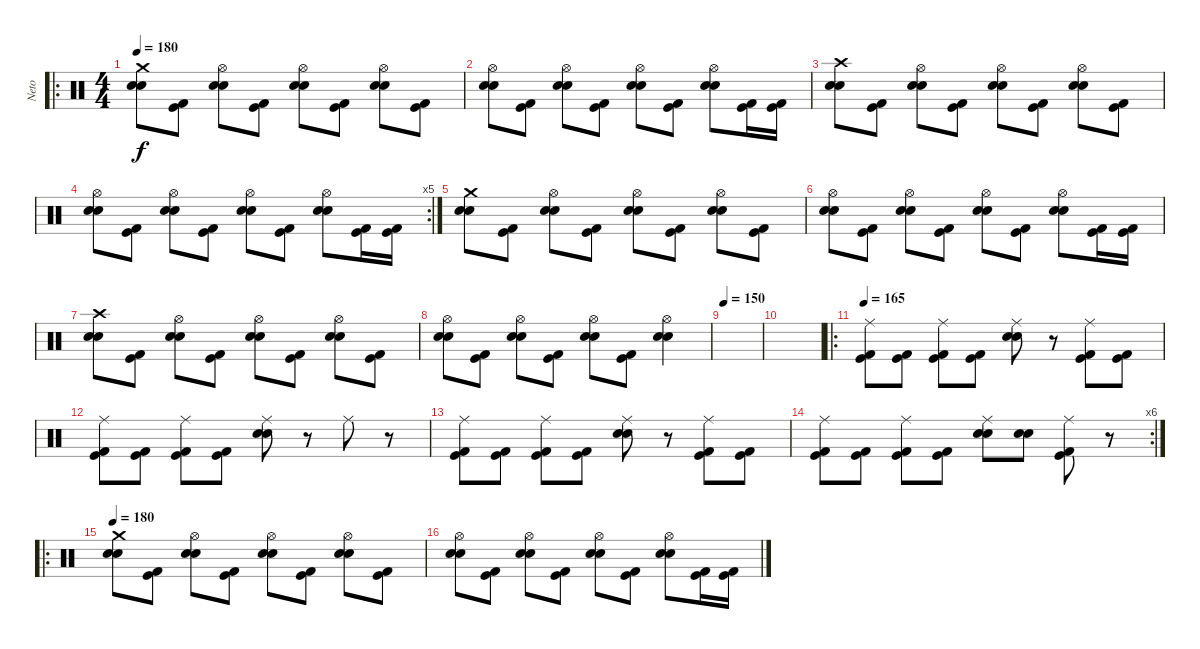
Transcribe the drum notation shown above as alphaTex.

\track ("Neto" "Neto") {instrument percussion}
\staff {score}
\articulation defaults
\ro
\ts (4 4)
\tempo 180
\clef neutral
\ks c
("Crash medium (hit)" "Snare (hit) 2" "Snare (hit) 2").8{dy f} ("Kick (hit)" "Kick (hit) 2").8 ("Hi-Hat (open)" "Snare (hit) 2" "Snare (hit) 2").8 ("Kick (hit)" "Kick (hit) 2").8 ("Hi-Hat (open)" "Snare (hit) 2" "Snare (hit) 2").8 ("Kick (hit)" "Kick (hit) 2").8 ("Hi-Hat (open)" "Snare (hit) 2" "Snare (hit) 2").8 ("Kick (hit)" "Kick (hit) 2").8 |
("Hi-Hat (open)" "Snare (hit) 2" "Snare (hit) 2").8 ("Kick (hit)" "Kick (hit) 2").8 ("Hi-Hat (open)" "Snare (hit) 2" "Snare (hit) 2").8 ("Kick (hit)" "Kick (hit) 2").8 ("Hi-Hat (open)" "Snare (hit) 2" "Snare (hit) 2").8 ("Kick (hit)" "Kick (hit) 2").8 ("Hi-Hat (open)" "Snare (hit) 2" "Snare (hit) 2").8 ("Kick (hit)" "Kick (hit) 2").16 ("Kick (hit)" "Kick (hit) 2").16 |
("Crash high (hit)" "Snare (hit) 2" "Snare (hit) 2").8 ("Kick (hit)" "Kick (hit) 2").8 ("Hi-Hat (open)" "Snare (hit) 2" "Snare (hit) 2").8 ("Kick (hit)" "Kick (hit) 2").8 ("Hi-Hat (open)" "Snare (hit) 2" "Snare (hit) 2").8 ("Kick (hit)" "Kick (hit) 2").8 ("Hi-Hat (open)" "Snare (hit) 2" "Snare (hit) 2").8 ("Kick (hit)" "Kick (hit) 2").8 |
\rc 5
("Hi-Hat (open)" "Snare (hit) 2" "Snare (hit) 2").8 ("Kick (hit)" "Kick (hit) 2").8 ("Hi-Hat (open)" "Snare (hit) 2" "Snare (hit) 2").8 ("Kick (hit)" "Kick (hit) 2").8 ("Hi-Hat (open)" "Snare (hit) 2" "Snare (hit) 2").8 ("Kick (hit)" "Kick (hit) 2").8 ("Hi-Hat (open)" "Snare (hit) 2" "Snare (hit) 2").8 ("Kick (hit)" "Kick (hit) 2").16 ("Kick (hit)" "Kick (hit) 2").16 |
("Crash medium (hit)" "Snare (hit) 2" "Snare (hit) 2").8 ("Kick (hit)" "Kick (hit) 2").8 ("Hi-Hat (open)" "Snare (hit) 2" "Snare (hit) 2").8 ("Kick (hit)" "Kick (hit) 2").8 ("Hi-Hat (open)" "Snare (hit) 2" "Snare (hit) 2").8 ("Kick (hit)" "Kick (hit) 2").8 ("Hi-Hat (open)" "Snare (hit) 2" "Snare (hit) 2").8 ("Kick (hit)" "Kick (hit) 2").8 |
("Hi-Hat (open)" "Snare (hit) 2" "Snare (hit) 2").8 ("Kick (hit)" "Kick (hit) 2").8 ("Hi-Hat (open)" "Snare (hit) 2" "Snare (hit) 2").8 ("Kick (hit)" "Kick (hit) 2").8 ("Hi-Hat (open)" "Snare (hit) 2" "Snare (hit) 2").8 ("Kick (hit)" "Kick (hit) 2").8 ("Hi-Hat (open)" "Snare (hit) 2" "Snare (hit) 2").8 ("Kick (hit)" "Kick (hit) 2").16 ("Kick (hit)" "Kick (hit) 2").16 |
("Crash high (hit)" "Snare (hit) 2" "Snare (hit) 2").8 ("Kick (hit)" "Kick (hit) 2").8 ("Hi-Hat (open)" "Snare (hit) 2" "Snare (hit) 2").8 ("Kick (hit)" "Kick (hit) 2").8 ("Hi-Hat (open)" "Snare (hit) 2" "Snare (hit) 2").8 ("Kick (hit)" "Kick (hit) 2").8 ("Hi-Hat (open)" "Snare (hit) 2" "Snare (hit) 2").8 ("Kick (hit)" "Kick (hit) 2").8 |
("Hi-Hat (open)" "Snare (hit) 2" "Snare (hit) 2").8 ("Kick (hit)" "Kick (hit) 2").8 ("Hi-Hat (open)" "Snare (hit) 2" "Snare (hit) 2").8 ("Kick (hit)" "Kick (hit) 2").8 ("Hi-Hat (open)" "Snare (hit) 2" "Snare (hit) 2").8 ("Kick (hit)" "Kick (hit) 2").8 ("Hi-Hat (open)" "Snare (hit) 2" "Snare (hit) 2").4 |
\tempo 150
|
|
\ro
\tempo 165
("Ride (middle)" "Kick (hit)" "Kick (hit) 2").8 ("Kick (hit)" "Kick (hit) 2").8 ("Ride (middle)" "Kick (hit)" "Kick (hit) 2").8 ("Kick (hit)" "Kick (hit) 2").8 ("Ride (middle)" "Snare (hit) 2" "Snare (hit) 2").8 r.8 ("Ride (middle)" "Kick (hit)" "Kick (hit) 2").8 ("Kick (hit)" "Kick (hit) 2").8 |
("Ride (middle)" "Kick (hit)" "Kick (hit) 2").8 ("Kick (hit)" "Kick (hit) 2").8 ("Ride (middle)" "Kick (hit)" "Kick (hit) 2").8 ("Kick (hit)" "Kick (hit) 2").8 ("Ride (middle)" "Snare (hit) 2" "Snare (hit) 2").8 r.8 "Ride (middle)".8 r.8 |
("Ride (middle)" "Kick (hit)" "Kick (hit) 2").8 ("Kick (hit)" "Kick (hit) 2").8 ("Ride (middle)" "Kick (hit)" "Kick (hit) 2").8 ("Kick (hit)" "Kick (hit) 2").8 ("Ride (middle)" "Snare (hit) 2" "Snare (hit) 2").8 r.8 ("Ride (middle)" "Kick (hit)" "Kick (hit) 2").8 ("Kick (hit)" "Kick (hit) 2").8 |
\rc 6
("Ride (middle)" "Kick (hit)" "Kick (hit) 2").8 ("Kick (hit)" "Kick (hit) 2").8 ("Ride (middle)" "Kick (hit)" "Kick (hit) 2").8 ("Kick (hit)" "Kick (hit) 2").8 ("Ride (middle)" "Snare (hit) 2" "Snare (hit) 2").8 ("Snare (hit) 2" "Snare (hit) 2").8 ("Ride (middle)" "Kick (hit)" "Kick (hit) 2").8 r.8 |
\ro
\tempo 180
("Crash medium (hit)" "Snare (hit) 2" "Snare (hit) 2").8 ("Kick (hit)" "Kick (hit) 2").8 ("Hi-Hat (open)" "Snare (hit) 2" "Snare (hit) 2").8 ("Kick (hit)" "Kick (hit) 2").8 ("Hi-Hat (open)" "Snare (hit) 2" "Snare (hit) 2").8 ("Kick (hit)" "Kick (hit) 2").8 ("Hi-Hat (open)" "Snare (hit) 2" "Snare (hit) 2").8 ("Kick (hit)" "Kick (hit) 2").8 |
("Hi-Hat (open)" "Snare (hit) 2" "Snare (hit) 2").8 ("Kick (hit)" "Kick (hit) 2").8 ("Hi-Hat (open)" "Snare (hit) 2" "Snare (hit) 2").8 ("Kick (hit)" "Kick (hit) 2").8 ("Hi-Hat (open)" "Snare (hit) 2" "Snare (hit) 2").8 ("Kick (hit)" "Kick (hit) 2").8 ("Hi-Hat (open)" "Snare (hit) 2" "Snare (hit) 2").8 ("Kick (hit)" "Kick (hit) 2").16 ("Kick (hit)" "Kick (hit) 2").16
